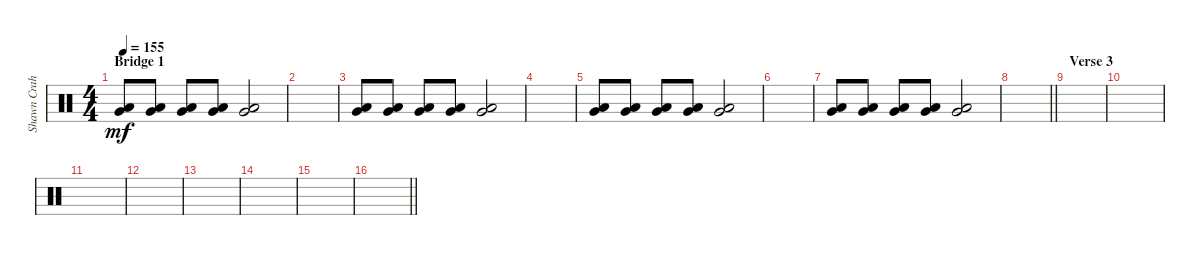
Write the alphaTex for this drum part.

\track ("Shawn Crahan" "Shawn Crah") {instrument percussion}
\staff {score}
\articulation defaults
\ts (4 4)
\section ("" "Bridge 1")
\tempo 155
\clef neutral
\ks c
("Very Low Tom (hit)" "Low Floor Tom (hit)").8{dy mf} ("Very Low Tom (hit)" "Low Floor Tom (hit)").8 ("Very Low Tom (hit)" "Low Floor Tom (hit)").8 ("Very Low Tom (hit)" "Low Floor Tom (hit)").8 ("Very Low Tom (hit)" "Low Floor Tom (hit)").2 |
|
("Very Low Tom (hit)" "Low Floor Tom (hit)").8 ("Very Low Tom (hit)" "Low Floor Tom (hit)").8 ("Very Low Tom (hit)" "Low Floor Tom (hit)").8 ("Very Low Tom (hit)" "Low Floor Tom (hit)").8 ("Very Low Tom (hit)" "Low Floor Tom (hit)").2 |
|
("Very Low Tom (hit)" "Low Floor Tom (hit)").8 ("Very Low Tom (hit)" "Low Floor Tom (hit)").8 ("Very Low Tom (hit)" "Low Floor Tom (hit)").8 ("Very Low Tom (hit)" "Low Floor Tom (hit)").8 ("Very Low Tom (hit)" "Low Floor Tom (hit)").2 |
|
("Very Low Tom (hit)" "Low Floor Tom (hit)").8 ("Very Low Tom (hit)" "Low Floor Tom (hit)").8 ("Very Low Tom (hit)" "Low Floor Tom (hit)").8 ("Very Low Tom (hit)" "Low Floor Tom (hit)").8 ("Very Low Tom (hit)" "Low Floor Tom (hit)").2 |
\barLineRight lightlight
|
\section ("" "Verse 3")
|
|
|
|
|
|
|
\barLineRight lightlight
